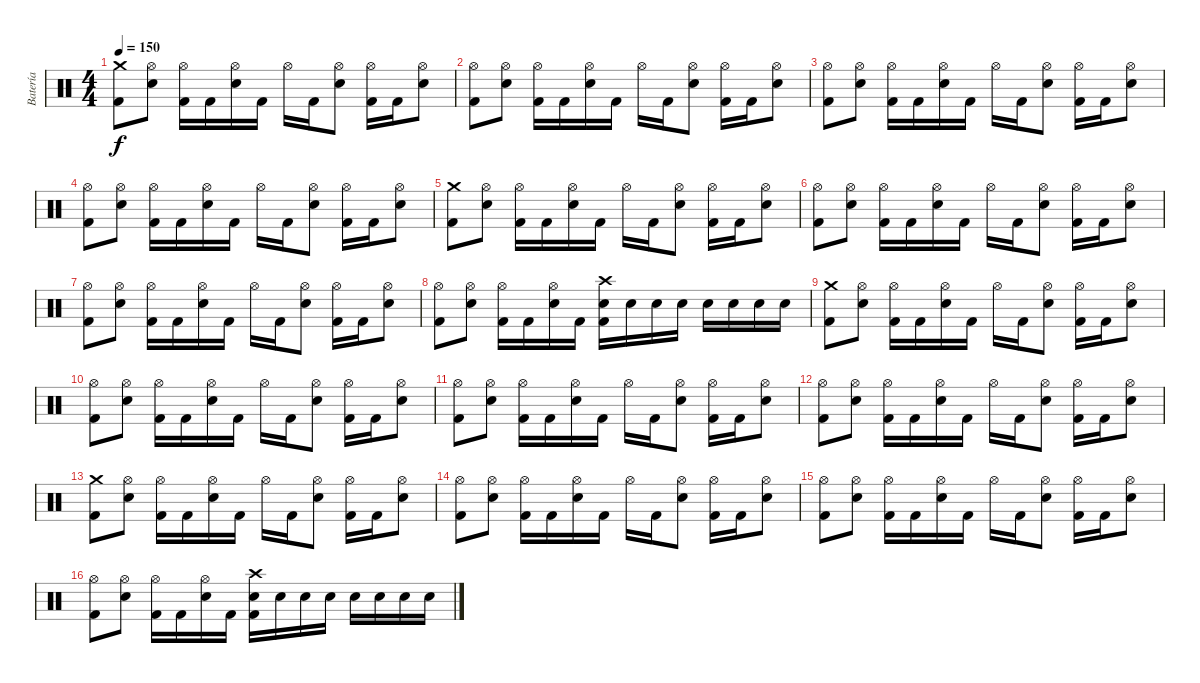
\track ("Batería" "Batería") {instrument percussion}
\staff {score}
\articulation defaults
\ts (4 4)
\tempo 150
\clef neutral
\ks c
("Kick (hit) 2" "Crash medium (hit)").8{dy f} ("Snare (hit) 2" "Hi-Hat (open)").8 ("Kick (hit) 2" "Hi-Hat (open)").16 "Kick (hit) 2".16 ("Snare (hit) 2" "Hi-Hat (open)").16 "Kick (hit) 2".16 "Hi-Hat (open)".16 "Kick (hit) 2".16 ("Snare (hit) 2" "Hi-Hat (open)").8 ("Kick (hit) 2" "Hi-Hat (open)").16 "Kick (hit) 2".16 ("Snare (hit) 2" "Hi-Hat (open)").8 |
("Kick (hit) 2" "Hi-Hat (open)").8 ("Snare (hit) 2" "Hi-Hat (open)").8 ("Kick (hit) 2" "Hi-Hat (open)").16 "Kick (hit) 2".16 ("Snare (hit) 2" "Hi-Hat (open)").16 "Kick (hit) 2".16 "Hi-Hat (open)".16 "Kick (hit) 2".16 ("Snare (hit) 2" "Hi-Hat (open)").8 ("Kick (hit) 2" "Hi-Hat (open)").16 "Kick (hit) 2".16 ("Snare (hit) 2" "Hi-Hat (open)").8 |
("Kick (hit) 2" "Hi-Hat (open)").8 ("Snare (hit) 2" "Hi-Hat (open)").8 ("Kick (hit) 2" "Hi-Hat (open)").16 "Kick (hit) 2".16 ("Snare (hit) 2" "Hi-Hat (open)").16 "Kick (hit) 2".16 "Hi-Hat (open)".16 "Kick (hit) 2".16 ("Snare (hit) 2" "Hi-Hat (open)").8 ("Kick (hit) 2" "Hi-Hat (open)").16 "Kick (hit) 2".16 ("Snare (hit) 2" "Hi-Hat (open)").8 |
("Kick (hit) 2" "Hi-Hat (open)").8 ("Snare (hit) 2" "Hi-Hat (open)").8 ("Kick (hit) 2" "Hi-Hat (open)").16 "Kick (hit) 2".16 ("Snare (hit) 2" "Hi-Hat (open)").16 "Kick (hit) 2".16 "Hi-Hat (open)".16 "Kick (hit) 2".16 ("Snare (hit) 2" "Hi-Hat (open)").8 ("Kick (hit) 2" "Hi-Hat (open)").16 "Kick (hit) 2".16 ("Snare (hit) 2" "Hi-Hat (open)").8 |
("Kick (hit) 2" "Crash medium (hit)").8 ("Snare (hit) 2" "Hi-Hat (open)").8 ("Kick (hit) 2" "Hi-Hat (open)").16 "Kick (hit) 2".16 ("Snare (hit) 2" "Hi-Hat (open)").16 "Kick (hit) 2".16 "Hi-Hat (open)".16 "Kick (hit) 2".16 ("Snare (hit) 2" "Hi-Hat (open)").8 ("Kick (hit) 2" "Hi-Hat (open)").16 "Kick (hit) 2".16 ("Snare (hit) 2" "Hi-Hat (open)").8 |
("Kick (hit) 2" "Hi-Hat (open)").8 ("Snare (hit) 2" "Hi-Hat (open)").8 ("Kick (hit) 2" "Hi-Hat (open)").16 "Kick (hit) 2".16 ("Snare (hit) 2" "Hi-Hat (open)").16 "Kick (hit) 2".16 "Hi-Hat (open)".16 "Kick (hit) 2".16 ("Snare (hit) 2" "Hi-Hat (open)").8 ("Kick (hit) 2" "Hi-Hat (open)").16 "Kick (hit) 2".16 ("Snare (hit) 2" "Hi-Hat (open)").8 |
("Kick (hit) 2" "Hi-Hat (open)").8 ("Snare (hit) 2" "Hi-Hat (open)").8 ("Kick (hit) 2" "Hi-Hat (open)").16 "Kick (hit) 2".16 ("Snare (hit) 2" "Hi-Hat (open)").16 "Kick (hit) 2".16 "Hi-Hat (open)".16 "Kick (hit) 2".16 ("Snare (hit) 2" "Hi-Hat (open)").8 ("Kick (hit) 2" "Hi-Hat (open)").16 "Kick (hit) 2".16 ("Snare (hit) 2" "Hi-Hat (open)").8 |
("Kick (hit) 2" "Hi-Hat (open)").8 ("Snare (hit) 2" "Hi-Hat (open)").8 ("Kick (hit) 2" "Hi-Hat (open)").16 "Kick (hit) 2".16 ("Snare (hit) 2" "Hi-Hat (open)").16 "Kick (hit) 2".16 ("Kick (hit) 2" "Snare (hit) 2" "Crash high (hit)").16 "Snare (hit) 2".16 "Snare (hit) 2".16 "Snare (hit) 2".16 "Snare (hit) 2".16 "Snare (hit) 2".16 "Snare (hit) 2".16 "Snare (hit) 2".16 |
("Kick (hit) 2" "Crash medium (hit)").8 ("Snare (hit) 2" "Hi-Hat (open)").8 ("Kick (hit) 2" "Hi-Hat (open)").16 "Kick (hit) 2".16 ("Snare (hit) 2" "Hi-Hat (open)").16 "Kick (hit) 2".16 "Hi-Hat (open)".16 "Kick (hit) 2".16 ("Snare (hit) 2" "Hi-Hat (open)").8 ("Kick (hit) 2" "Hi-Hat (open)").16 "Kick (hit) 2".16 ("Snare (hit) 2" "Hi-Hat (open)").8 |
("Kick (hit) 2" "Hi-Hat (open)").8 ("Snare (hit) 2" "Hi-Hat (open)").8 ("Kick (hit) 2" "Hi-Hat (open)").16 "Kick (hit) 2".16 ("Snare (hit) 2" "Hi-Hat (open)").16 "Kick (hit) 2".16 "Hi-Hat (open)".16 "Kick (hit) 2".16 ("Snare (hit) 2" "Hi-Hat (open)").8 ("Kick (hit) 2" "Hi-Hat (open)").16 "Kick (hit) 2".16 ("Snare (hit) 2" "Hi-Hat (open)").8 |
("Kick (hit) 2" "Hi-Hat (open)").8 ("Snare (hit) 2" "Hi-Hat (open)").8 ("Kick (hit) 2" "Hi-Hat (open)").16 "Kick (hit) 2".16 ("Snare (hit) 2" "Hi-Hat (open)").16 "Kick (hit) 2".16 "Hi-Hat (open)".16 "Kick (hit) 2".16 ("Snare (hit) 2" "Hi-Hat (open)").8 ("Kick (hit) 2" "Hi-Hat (open)").16 "Kick (hit) 2".16 ("Snare (hit) 2" "Hi-Hat (open)").8 |
("Kick (hit) 2" "Hi-Hat (open)").8 ("Snare (hit) 2" "Hi-Hat (open)").8 ("Kick (hit) 2" "Hi-Hat (open)").16 "Kick (hit) 2".16 ("Snare (hit) 2" "Hi-Hat (open)").16 "Kick (hit) 2".16 "Hi-Hat (open)".16 "Kick (hit) 2".16 ("Snare (hit) 2" "Hi-Hat (open)").8 ("Kick (hit) 2" "Hi-Hat (open)").16 "Kick (hit) 2".16 ("Snare (hit) 2" "Hi-Hat (open)").8 |
("Kick (hit) 2" "Crash medium (hit)").8 ("Snare (hit) 2" "Hi-Hat (open)").8 ("Kick (hit) 2" "Hi-Hat (open)").16 "Kick (hit) 2".16 ("Snare (hit) 2" "Hi-Hat (open)").16 "Kick (hit) 2".16 "Hi-Hat (open)".16 "Kick (hit) 2".16 ("Snare (hit) 2" "Hi-Hat (open)").8 ("Kick (hit) 2" "Hi-Hat (open)").16 "Kick (hit) 2".16 ("Snare (hit) 2" "Hi-Hat (open)").8 |
("Kick (hit) 2" "Hi-Hat (open)").8 ("Snare (hit) 2" "Hi-Hat (open)").8 ("Kick (hit) 2" "Hi-Hat (open)").16 "Kick (hit) 2".16 ("Snare (hit) 2" "Hi-Hat (open)").16 "Kick (hit) 2".16 "Hi-Hat (open)".16 "Kick (hit) 2".16 ("Snare (hit) 2" "Hi-Hat (open)").8 ("Kick (hit) 2" "Hi-Hat (open)").16 "Kick (hit) 2".16 ("Snare (hit) 2" "Hi-Hat (open)").8 |
("Kick (hit) 2" "Hi-Hat (open)").8 ("Snare (hit) 2" "Hi-Hat (open)").8 ("Kick (hit) 2" "Hi-Hat (open)").16 "Kick (hit) 2".16 ("Snare (hit) 2" "Hi-Hat (open)").16 "Kick (hit) 2".16 "Hi-Hat (open)".16 "Kick (hit) 2".16 ("Snare (hit) 2" "Hi-Hat (open)").8 ("Kick (hit) 2" "Hi-Hat (open)").16 "Kick (hit) 2".16 ("Snare (hit) 2" "Hi-Hat (open)").8 |
("Kick (hit) 2" "Hi-Hat (open)").8 ("Snare (hit) 2" "Hi-Hat (open)").8 ("Kick (hit) 2" "Hi-Hat (open)").16 "Kick (hit) 2".16 ("Snare (hit) 2" "Hi-Hat (open)").16 "Kick (hit) 2".16 ("Kick (hit) 2" "Snare (hit) 2" "Crash high (hit)").16 "Snare (hit) 2".16 "Snare (hit) 2".16 "Snare (hit) 2".16 "Snare (hit) 2".16 "Snare (hit) 2".16 "Snare (hit) 2".16 "Snare (hit) 2".16
